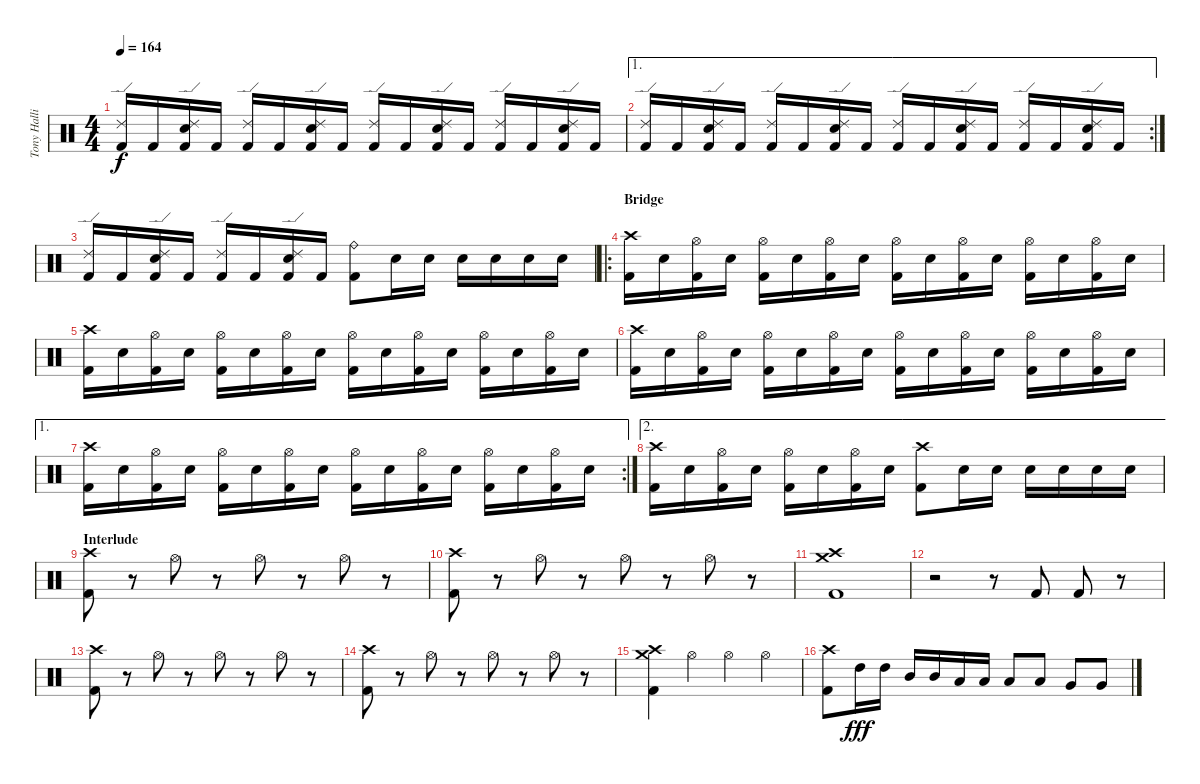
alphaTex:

\track ("Tony Hallio - Drums" "Tony Halli") {instrument percussion}
\staff {score}
\articulation defaults
\ts (4 4)
\tempo 164
\clef neutral
\ks c
("Ride (edge) 2" "Kick (hit) 2").16{dy f} "Kick (hit) 2".16 ("Ride (edge) 2" "Electric Snare (hit)" "Kick (hit) 2").16 "Kick (hit) 2".16 ("Ride (edge) 2" "Kick (hit) 2").16 "Kick (hit) 2".16 ("Ride (edge) 2" "Electric Snare (hit)" "Kick (hit) 2").16 "Kick (hit) 2".16 ("Ride (edge) 2" "Kick (hit) 2").16 "Kick (hit) 2".16 ("Ride (edge) 2" "Electric Snare (hit)" "Kick (hit) 2").16 "Kick (hit) 2".16 ("Ride (edge) 2" "Kick (hit) 2").16 "Kick (hit) 2".16 ("Ride (edge) 2" "Electric Snare (hit)" "Kick (hit) 2").16 "Kick (hit) 2".16 |
\ae 1
\rc 2
("Ride (edge) 2" "Kick (hit) 2").16 "Kick (hit) 2".16 ("Ride (edge) 2" "Electric Snare (hit)" "Kick (hit) 2").16 "Kick (hit) 2".16 ("Ride (edge) 2" "Kick (hit) 2").16 "Kick (hit) 2".16 ("Ride (edge) 2" "Electric Snare (hit)" "Kick (hit) 2").16 "Kick (hit) 2".16 ("Ride (edge) 2" "Kick (hit) 2").16 "Kick (hit) 2".16 ("Ride (edge) 2" "Electric Snare (hit)" "Kick (hit) 2").16 "Kick (hit) 2".16 ("Ride (edge) 2" "Kick (hit) 2").16 "Kick (hit) 2".16 ("Ride (edge) 2" "Electric Snare (hit)" "Kick (hit) 2").16 "Kick (hit) 2".16 |
("Ride (edge) 2" "Kick (hit) 2").16 "Kick (hit) 2".16 ("Ride (edge) 2" "Electric Snare (hit)" "Kick (hit) 2").16 "Kick (hit) 2".16 ("Ride (edge) 2" "Kick (hit) 2").16 "Kick (hit) 2".16 ("Ride (edge) 2" "Electric Snare (hit)" "Kick (hit) 2").16 "Kick (hit) 2".16 ("Ride (bell)" "Kick (hit) 2").8 "Electric Snare (hit)".16 "Electric Snare (hit)".16 "Electric Snare (hit)".16 "Electric Snare (hit)".16 "Electric Snare (hit)".16 "Electric Snare (hit)".16 |
\ro
\section ("" "Bridge")
("Crash high (hit)" "Kick (hit) 2").16 "Electric Snare (hit)".16 ("Hi-Hat (open)" "Kick (hit) 2").16 "Electric Snare (hit)".16 ("Hi-Hat (open)" "Kick (hit) 2").16 "Electric Snare (hit)".16 ("Hi-Hat (open)" "Kick (hit) 2").16 "Electric Snare (hit)".16 ("Hi-Hat (open)" "Kick (hit) 2").16 "Electric Snare (hit)".16 ("Hi-Hat (open)" "Kick (hit) 2").16 "Electric Snare (hit)".16 ("Hi-Hat (open)" "Kick (hit) 2").16 "Electric Snare (hit)".16 ("Hi-Hat (open)" "Kick (hit) 2").16 "Electric Snare (hit)".16 |
("Crash high (hit)" "Kick (hit) 2").16 "Electric Snare (hit)".16 ("Hi-Hat (open)" "Kick (hit) 2").16 "Electric Snare (hit)".16 ("Hi-Hat (open)" "Kick (hit) 2").16 "Electric Snare (hit)".16 ("Hi-Hat (open)" "Kick (hit) 2").16 "Electric Snare (hit)".16 ("Hi-Hat (open)" "Kick (hit) 2").16 "Electric Snare (hit)".16 ("Hi-Hat (open)" "Kick (hit) 2").16 "Electric Snare (hit)".16 ("Hi-Hat (open)" "Kick (hit) 2").16 "Electric Snare (hit)".16 ("Hi-Hat (open)" "Kick (hit) 2").16 "Electric Snare (hit)".16 |
("Crash high (hit)" "Kick (hit) 2").16 "Electric Snare (hit)".16 ("Hi-Hat (open)" "Kick (hit) 2").16 "Electric Snare (hit)".16 ("Hi-Hat (open)" "Kick (hit) 2").16 "Electric Snare (hit)".16 ("Hi-Hat (open)" "Kick (hit) 2").16 "Electric Snare (hit)".16 ("Hi-Hat (open)" "Kick (hit) 2").16 "Electric Snare (hit)".16 ("Hi-Hat (open)" "Kick (hit) 2").16 "Electric Snare (hit)".16 ("Hi-Hat (open)" "Kick (hit) 2").16 "Electric Snare (hit)".16 ("Hi-Hat (open)" "Kick (hit) 2").16 "Electric Snare (hit)".16 |
\ae 1
\rc 2
("Crash high (hit)" "Kick (hit) 2").16 "Electric Snare (hit)".16 ("Hi-Hat (open)" "Kick (hit) 2").16 "Electric Snare (hit)".16 ("Hi-Hat (open)" "Kick (hit) 2").16 "Electric Snare (hit)".16 ("Hi-Hat (open)" "Kick (hit) 2").16 "Electric Snare (hit)".16 ("Hi-Hat (open)" "Kick (hit) 2").16 "Electric Snare (hit)".16 ("Hi-Hat (open)" "Kick (hit) 2").16 "Electric Snare (hit)".16 ("Hi-Hat (open)" "Kick (hit) 2").16 "Electric Snare (hit)".16 ("Hi-Hat (open)" "Kick (hit) 2").16 "Electric Snare (hit)".16 |
\ae 2
("Crash high (hit)" "Kick (hit) 2").16 "Electric Snare (hit)".16 ("Hi-Hat (open)" "Kick (hit) 2").16 "Electric Snare (hit)".16 ("Hi-Hat (open)" "Kick (hit) 2").16 "Electric Snare (hit)".16 ("Hi-Hat (open)" "Kick (hit) 2").16 "Electric Snare (hit)".16 ("Crash high (hit)" "Kick (hit) 2").8 "Electric Snare (hit)".16 "Electric Snare (hit)".16 "Electric Snare (hit)".16 "Electric Snare (hit)".16 "Electric Snare (hit)".16 "Electric Snare (hit)".16 |
\section ("" "Interlude")
("Crash high (hit)" "Kick (hit) 2").8 r.8 "Hi-Hat (open)".8 r.8 "Hi-Hat (open)".8 r.8 "Hi-Hat (open)".8 r.8 |
("Crash high (hit)" "Kick (hit) 2").8 r.8 "Hi-Hat (open)".8 r.8 "Hi-Hat (open)".8 r.8 "Hi-Hat (open)".8 r.8 |
("Crash high (hit)" "Crash medium (hit)" "Kick (hit) 2").1 |
r.2 r.8 "Kick (hit) 2".8 "Kick (hit) 2".8 r.8 |
("Crash high (hit)" "Kick (hit) 2").8 r.8 "Hi-Hat (open)".8 r.8 "Hi-Hat (open)".8 r.8 "Hi-Hat (open)".8 r.8 |
("Crash high (hit)" "Kick (hit) 2").8 r.8 "Hi-Hat (open)".8 r.8 "Hi-Hat (open)".8 r.8 "Hi-Hat (open)".8 r.8 |
("Crash medium (hit)" "Crash high (hit)" "Kick (hit) 2").4 "Hi-Hat (open)".4 "Hi-Hat (open)".4 "Hi-Hat (open)".4 |
("Crash high (hit)" "Kick (hit) 2").8 "High Tom (hit)".16{dy fff} "High Tom (hit)".16 "Mid Tom (hit)".16 "Mid Tom (hit)".16 "Low Tom (hit)".16 "Low Tom (hit)".16 "Low Tom (hit)".8 "Low Tom (hit)".8 "Very Low Tom (hit)".8 "Very Low Tom (hit)".8
